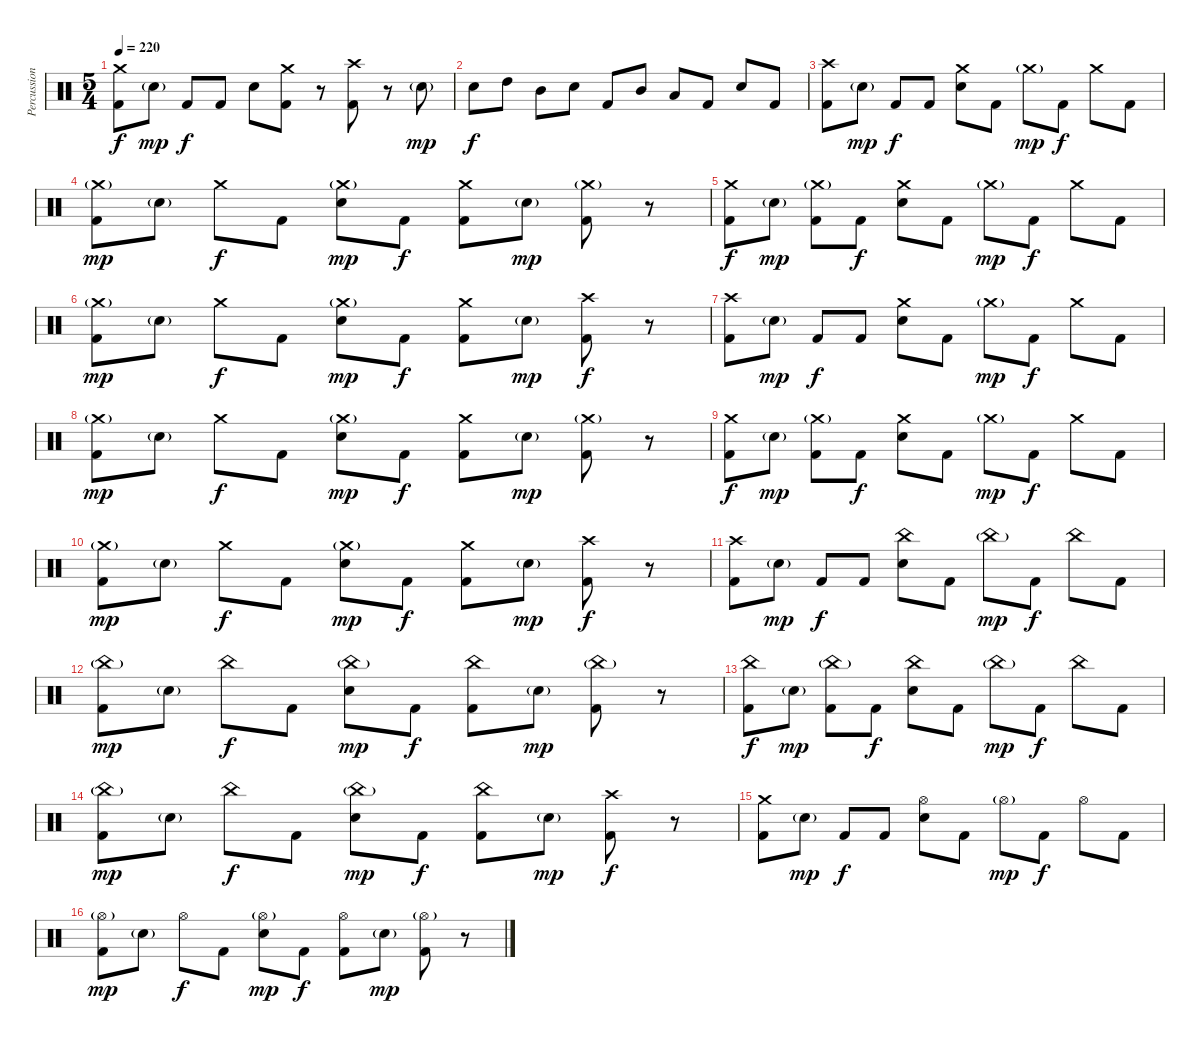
\track ("Percussion" "Percussion") {instrument percussion}
\staff {score}
\articulation defaults
\ts (5 4)
\tempo 220
\clef neutral
\ks c
("Crash medium (hit)" "Kick (hit) 2").8{dy f} "Electric Snare (hit)"{g}.8{dy mp} "Kick (hit) 2".8{dy f} "Kick (hit) 2".8 "Electric Snare (hit)".8 ("Crash medium (hit)" "Kick (hit) 2").8 r.8 ("Crash high (hit)" "Kick (hit) 2").8 r.8 "Electric Snare (hit)"{g}.8{dy mp} |
"Electric Snare (hit)".8{dy f} "High Tom (hit)".8 "Mid Tom (hit)".8 "Electric Snare (hit)".8 "Kick (hit) 2".8 "Mid Tom (hit)".8 "Low Tom (hit)".8 "Kick (hit) 2".8 "Electric Snare (hit)".8 "Kick (hit) 2".8 |
("Crash high (hit)" "Kick (hit) 2").8 "Electric Snare (hit)"{g}.8{dy mp} "Kick (hit) 2".8{dy f} "Kick (hit) 2".8 ("Crash medium (hit)" "Electric Snare (hit)").8 "Kick (hit) 2".8 "Crash medium (hit)"{g}.8{dy mp} "Kick (hit) 2".8{dy f} "Crash medium (hit)".8 "Kick (hit) 2".8 |
("Crash medium (hit)"{g} "Kick (hit) 2").8{dy mp} "Electric Snare (hit)"{g}.8 "Crash medium (hit)".8{dy f} "Kick (hit) 2".8 ("Crash medium (hit)"{g} "Electric Snare (hit)").8{dy mp} "Kick (hit) 2".8{dy f} ("Crash medium (hit)" "Kick (hit) 2").8 "Electric Snare (hit)"{g}.8{dy mp} ("Crash medium (hit)"{g} "Kick (hit) 2").8 r.8 |
("Crash medium (hit)" "Kick (hit) 2").8{dy f} "Electric Snare (hit)"{g}.8{dy mp} ("Crash medium (hit)"{g} "Kick (hit) 2").8 "Kick (hit) 2".8{dy f} ("Crash medium (hit)" "Electric Snare (hit)").8 "Kick (hit) 2".8 "Crash medium (hit)"{g}.8{dy mp} "Kick (hit) 2".8{dy f} "Crash medium (hit)".8 "Kick (hit) 2".8 |
("Crash medium (hit)"{g} "Kick (hit) 2").8{dy mp} "Electric Snare (hit)"{g}.8 "Crash medium (hit)".8{dy f} "Kick (hit) 2".8 ("Crash medium (hit)"{g} "Electric Snare (hit)").8{dy mp} "Kick (hit) 2".8{dy f} ("Crash medium (hit)" "Kick (hit) 2").8 "Electric Snare (hit)"{g}.8{dy mp} ("Crash high (hit)" "Kick (hit) 2").8{dy f} r.8 |
("Crash high (hit)" "Kick (hit) 2").8 "Electric Snare (hit)"{g}.8{dy mp} "Kick (hit) 2".8{dy f} "Kick (hit) 2".8 ("Crash medium (hit)" "Electric Snare (hit)").8 "Kick (hit) 2".8 "Crash medium (hit)"{g}.8{dy mp} "Kick (hit) 2".8{dy f} "Crash medium (hit)".8 "Kick (hit) 2".8 |
("Crash medium (hit)"{g} "Kick (hit) 2").8{dy mp} "Electric Snare (hit)"{g}.8 "Crash medium (hit)".8{dy f} "Kick (hit) 2".8 ("Crash medium (hit)"{g} "Electric Snare (hit)").8{dy mp} "Kick (hit) 2".8{dy f} ("Crash medium (hit)" "Kick (hit) 2").8 "Electric Snare (hit)"{g}.8{dy mp} ("Crash medium (hit)"{g} "Kick (hit) 2").8 r.8 |
("Crash medium (hit)" "Kick (hit) 2").8{dy f} "Electric Snare (hit)"{g}.8{dy mp} ("Crash medium (hit)"{g} "Kick (hit) 2").8 "Kick (hit) 2".8{dy f} ("Crash medium (hit)" "Electric Snare (hit)").8 "Kick (hit) 2".8 "Crash medium (hit)"{g}.8{dy mp} "Kick (hit) 2".8{dy f} "Crash medium (hit)".8 "Kick (hit) 2".8 |
("Crash medium (hit)"{g} "Kick (hit) 2").8{dy mp} "Electric Snare (hit)"{g}.8 "Crash medium (hit)".8{dy f} "Kick (hit) 2".8 ("Crash medium (hit)"{g} "Electric Snare (hit)").8{dy mp} "Kick (hit) 2".8{dy f} ("Crash medium (hit)" "Kick (hit) 2").8 "Electric Snare (hit)"{g}.8{dy mp} ("Crash high (hit)" "Kick (hit) 2").8{dy f} r.8 |
("Crash high (hit)" "Kick (hit) 2").8 "Electric Snare (hit)"{g}.8{dy mp} "Kick (hit) 2".8{dy f} "Kick (hit) 2".8 ("China (hit)" "Electric Snare (hit)").8 "Kick (hit) 2".8 "China (hit)"{g}.8{dy mp} "Kick (hit) 2".8{dy f} "China (hit)".8 "Kick (hit) 2".8 |
("China (hit)"{g} "Kick (hit) 2").8{dy mp} "Electric Snare (hit)"{g}.8 "China (hit)".8{dy f} "Kick (hit) 2".8 ("China (hit)"{g} "Electric Snare (hit)").8{dy mp} "Kick (hit) 2".8{dy f} ("China (hit)" "Kick (hit) 2").8 "Electric Snare (hit)"{g}.8{dy mp} ("China (hit)"{g} "Kick (hit) 2").8 r.8 |
("China (hit)" "Kick (hit) 2").8{dy f} "Electric Snare (hit)"{g}.8{dy mp} ("China (hit)"{g} "Kick (hit) 2").8 "Kick (hit) 2".8{dy f} ("China (hit)" "Electric Snare (hit)").8 "Kick (hit) 2".8 "China (hit)"{g}.8{dy mp} "Kick (hit) 2".8{dy f} "China (hit)".8 "Kick (hit) 2".8 |
("China (hit)"{g} "Kick (hit) 2").8{dy mp} "Electric Snare (hit)"{g}.8 "China (hit)".8{dy f} "Kick (hit) 2".8 ("China (hit)"{g} "Electric Snare (hit)").8{dy mp} "Kick (hit) 2".8{dy f} ("China (hit)" "Kick (hit) 2").8 "Electric Snare (hit)"{g}.8{dy mp} ("Crash high (hit)" "Kick (hit) 2").8{dy f} r.8 |
("Crash medium (hit)" "Kick (hit) 2").8 "Electric Snare (hit)"{g}.8{dy mp} "Kick (hit) 2".8{dy f} "Kick (hit) 2".8 ("Hi-Hat (open)" "Electric Snare (hit)").8 "Kick (hit) 2".8 "Hi-Hat (open)"{g}.8{dy mp} "Kick (hit) 2".8{dy f} "Hi-Hat (open)".8 "Kick (hit) 2".8 |
("Hi-Hat (open)"{g} "Kick (hit) 2").8{dy mp} "Electric Snare (hit)"{g}.8 "Hi-Hat (open)".8{dy f} "Kick (hit) 2".8 ("Hi-Hat (open)"{g} "Electric Snare (hit)").8{dy mp} "Kick (hit) 2".8{dy f} ("Hi-Hat (open)" "Kick (hit) 2").8 "Electric Snare (hit)"{g}.8{dy mp} ("Hi-Hat (open)"{g} "Kick (hit) 2").8 r.8
